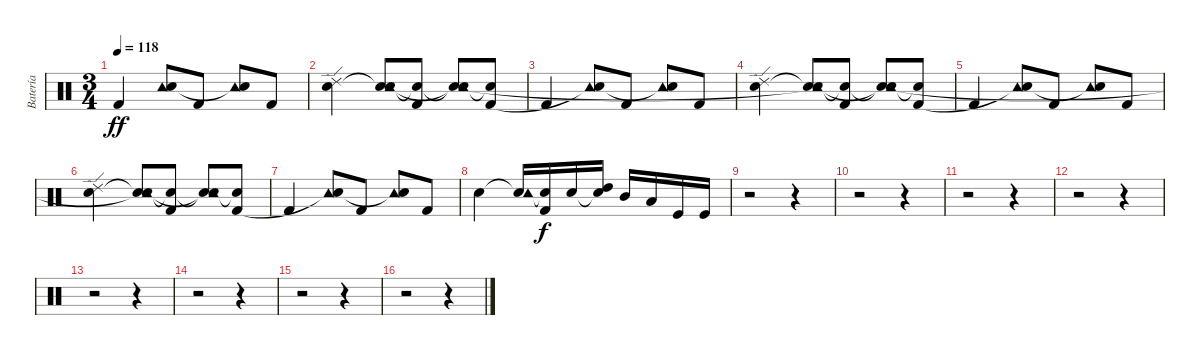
\track ("Batería" "Batería") {instrument percussion}
\staff {score}
\articulation defaults
\ts (3 4)
\tempo 118
\clef neutral
\ks c "Kick (hit) 2".4{dy ff volume 16}
("Tambourine (hit)" "Snare (hit)"{t}).8 "Kick (hit) 2".8 ("Tambourine (hit)" "Snare (hit)"{t}).8 "Kick (hit) 2".8 |
("Snare (hit) 2" "Ride (edge) 2").4 ("Snare (hit)"{t} "Tambourine (hit)" "Snare (hit)").8 ("Snare (hit)"{t} "Kick (hit) 2").8 ("Snare (hit)"{t} "Tambourine (hit)" "Snare (hit)"{t}).8 ("Snare (hit)"{t} "Kick (hit) 2").8 |
"Kick (hit) 2".4 ("Tambourine (hit)" "Snare (hit)"{t}).8 "Kick (hit) 2".8 ("Tambourine (hit)" "Snare (hit)"{t}).8 "Kick (hit) 2".8 |
("Snare (hit) 2" "Ride (edge) 2").4 ("Snare (hit)"{t} "Tambourine (hit)" "Snare (hit)"{t}).8 ("Snare (hit)"{t} "Kick (hit) 2").8 ("Snare (hit)"{t} "Tambourine (hit)" "Snare (hit)"{t}).8 ("Snare (hit)"{t} "Kick (hit) 2").8 |
"Kick (hit) 2".4 ("Tambourine (hit)" "Snare (hit)"{t}).8 "Kick (hit) 2".8 ("Tambourine (hit)" "Snare (hit)"{t}).8 "Kick (hit) 2".8 |
("Snare (hit) 2" "Ride (edge) 2").4 ("Snare (hit)"{t} "Tambourine (hit)" "Snare (hit)"{t}).8 ("Snare (hit)"{t} "Kick (hit) 2").8 ("Snare (hit)"{t} "Tambourine (hit)" "Snare (hit)"{t}).8 ("Snare (hit)"{t} "Kick (hit) 2").8 |
"Kick (hit) 2".4 ("Tambourine (hit)" "Snare (hit)"{t}).8 "Kick (hit) 2".8 ("Tambourine (hit)" "Snare (hit)"{t}).8 "Kick (hit) 2".8 |
"Snare (hit) 2".4 ("Snare (hit)"{t} "Tambourine (hit)").16 ("Snare (hit)"{t} "Kick (hit) 2").16{dy f} "Snare (hit) 2".16 ("Snare (hit)"{t} "High Tom (hit)").16 "Mid Tom (hit)".16 "Low Tom (hit)".16 "Kick (hit)".16 "Kick (hit)".16 |
r.2 r.4 |
r.2 r.4 |
r.2 r.4 |
r.2 r.4 |
r.2 r.4 |
r.2 r.4 |
r.2 r.4 |
r.2 r.4
